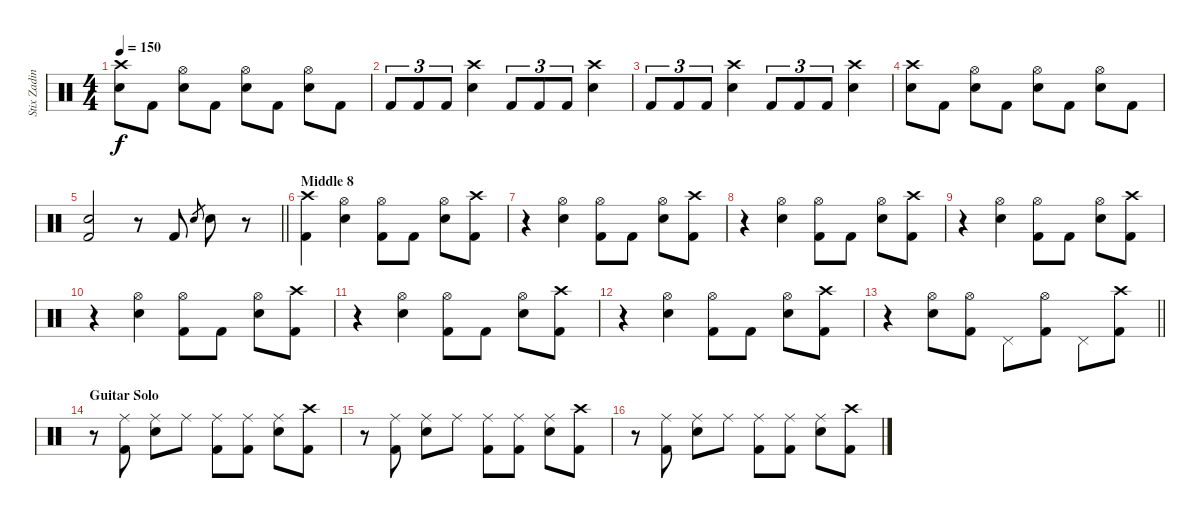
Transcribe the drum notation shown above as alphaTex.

\track ("Stix Zadinia" "Stix Zadin") {instrument percussion}
\staff {score}
\articulation defaults
\ts (4 4)
\tempo 150
\clef neutral
\ks c
("Crash high (hit)" "Electric Snare (hit)").8{dy f} "Kick (hit) 2".8 ("Hi-Hat (open)" "Electric Snare (hit)").8 "Kick (hit) 2".8 ("Hi-Hat (open)" "Electric Snare (hit)").8 "Kick (hit) 2".8 ("Hi-Hat (open)" "Electric Snare (hit)").8 "Kick (hit) 2".8 |
"Kick (hit) 2".8{tu (3 2)} "Kick (hit) 2".8{tu (3 2)} "Kick (hit) 2".8{tu (3 2)} ("Crash high (hit)" "Electric Snare (hit)").4 "Kick (hit) 2".8{tu (3 2)} "Kick (hit) 2".8{tu (3 2)} "Kick (hit) 2".8{tu (3 2)} ("Crash high (hit)" "Electric Snare (hit)").4 |
"Kick (hit) 2".8{tu (3 2)} "Kick (hit) 2".8{tu (3 2)} "Kick (hit) 2".8{tu (3 2)} ("Crash high (hit)" "Electric Snare (hit)").4 "Kick (hit) 2".8{tu (3 2)} "Kick (hit) 2".8{tu (3 2)} "Kick (hit) 2".8{tu (3 2)} ("Crash high (hit)" "Electric Snare (hit)").4 |
("Crash high (hit)" "Electric Snare (hit)").8 "Kick (hit) 2".8 ("Hi-Hat (open)" "Electric Snare (hit)").8 "Kick (hit) 2".8 ("Hi-Hat (open)" "Electric Snare (hit)").8 "Kick (hit) 2".8 ("Hi-Hat (open)" "Electric Snare (hit)").8 "Kick (hit) 2".8 |
\barLineRight lightlight
("Electric Snare (hit)" "Kick (hit) 2").2 r.8 "Kick (hit) 2".8 "Electric Snare (hit)".8{gr} "Electric Snare (hit)".8 r.8 |
\section ("" "Middle 8")
("Crash high (hit)" "Kick (hit) 2").4 ("Hi-Hat (open)" "Electric Snare (hit)").4 ("Hi-Hat (open)" "Kick (hit) 2").8 "Kick (hit) 2".8 ("Hi-Hat (open)" "Electric Snare (hit)").8 ("Crash high (hit)" "Kick (hit) 2").8 |
r.4 ("Hi-Hat (open)" "Electric Snare (hit)").4 ("Hi-Hat (open)" "Kick (hit) 2").8 "Kick (hit) 2".8 ("Hi-Hat (open)" "Electric Snare (hit)").8 ("Crash high (hit)" "Kick (hit) 2").8 |
r.4 ("Hi-Hat (open)" "Electric Snare (hit)").4 ("Hi-Hat (open)" "Kick (hit) 2").8 "Kick (hit) 2".8 ("Hi-Hat (open)" "Electric Snare (hit)").8 ("Crash high (hit)" "Kick (hit) 2").8 |
r.4 ("Hi-Hat (open)" "Electric Snare (hit)").4 ("Hi-Hat (open)" "Kick (hit) 2").8 "Kick (hit) 2".8 ("Hi-Hat (open)" "Electric Snare (hit)").8 ("Crash high (hit)" "Kick (hit) 2").8 |
r.4 ("Hi-Hat (open)" "Electric Snare (hit)").4 ("Hi-Hat (open)" "Kick (hit) 2").8 "Kick (hit) 2".8 ("Hi-Hat (open)" "Electric Snare (hit)").8 ("Crash high (hit)" "Kick (hit) 2").8 |
r.4 ("Hi-Hat (open)" "Electric Snare (hit)").4 ("Hi-Hat (open)" "Kick (hit) 2").8 "Kick (hit) 2".8 ("Hi-Hat (open)" "Electric Snare (hit)").8 ("Crash high (hit)" "Kick (hit) 2").8 |
r.4 ("Hi-Hat (open)" "Electric Snare (hit)").4 ("Hi-Hat (open)" "Kick (hit) 2").8 "Kick (hit) 2".8 ("Hi-Hat (open)" "Electric Snare (hit)").8 ("Crash high (hit)" "Kick (hit) 2").8 |
\barLineRight lightlight
r.4 ("Hi-Hat (open)" "Electric Snare (hit)").8 ("Hi-Hat (open)" "Kick (hit) 2").8 "Pedal Hi-Hat (hit)".8 ("Hi-Hat (open)" "Kick (hit) 2").8 "Pedal Hi-Hat (hit)".8 ("Crash high (hit)" "Kick (hit) 2").8 |
\section ("" "Guitar Solo")
r.8 ("Ride (middle)" "Kick (hit) 2").8 ("Ride (middle)" "Electric Snare (hit)").8 "Ride (middle)".8 ("Ride (middle)" "Kick (hit) 2").8 ("Ride (middle)" "Kick (hit) 2").8 ("Ride (middle)" "Electric Snare (hit)").8 ("Crash high (hit)" "Kick (hit) 2").8 |
r.8 ("Ride (middle)" "Kick (hit) 2").8 ("Ride (middle)" "Electric Snare (hit)").8 "Ride (middle)".8 ("Ride (middle)" "Kick (hit) 2").8 ("Ride (middle)" "Kick (hit) 2").8 ("Ride (middle)" "Electric Snare (hit)").8 ("Crash high (hit)" "Kick (hit) 2").8 |
r.8 ("Ride (middle)" "Kick (hit) 2").8 ("Ride (middle)" "Electric Snare (hit)").8 "Ride (middle)".8 ("Ride (middle)" "Kick (hit) 2").8 ("Ride (middle)" "Kick (hit) 2").8 ("Ride (middle)" "Electric Snare (hit)").8 ("Crash high (hit)" "Kick (hit) 2").8
